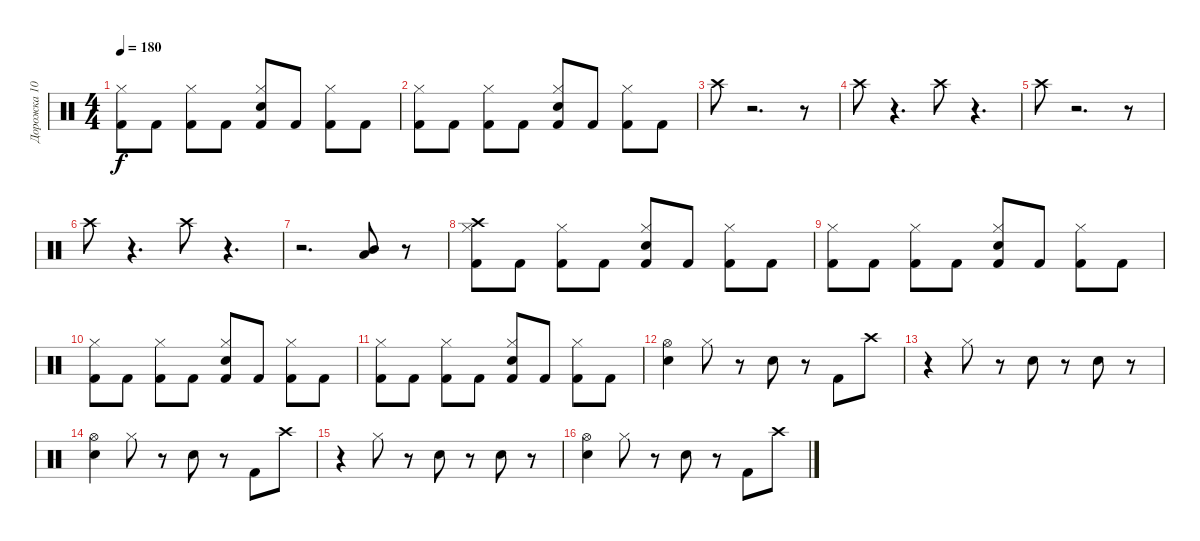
\track ("Дорожка 10" "Дорожка 10") {instrument percussion}
\staff {score}
\articulation defaults
\ts (4 4)
\tempo 180
\clef neutral
\ks c
("Kick (hit) 2" "Hi-Hat (closed)").8{dy f} "Kick (hit) 2".8 ("Kick (hit) 2" "Hi-Hat (closed)").8 "Kick (hit) 2".8 ("Snare (hit) 2" "Kick (hit) 2" "Hi-Hat (closed)").8 "Kick (hit) 2".8 ("Kick (hit) 2" "Hi-Hat (closed)").8 "Kick (hit) 2".8 |
("Kick (hit) 2" "Hi-Hat (closed)").8 "Kick (hit) 2".8 ("Kick (hit) 2" "Hi-Hat (closed)").8 "Kick (hit) 2".8 ("Snare (hit) 2" "Kick (hit) 2" "Hi-Hat (closed)").8 "Kick (hit) 2".8 ("Kick (hit) 2" "Hi-Hat (closed)").8 "Kick (hit) 2".8 |
"Crash high (hit)".8 r.2{d} r.8 |
"Crash high (hit)".8 r.4{d} "Crash high (hit)".8 r.4{d} |
"Crash high (hit)".8 r.2{d} r.8 |
"Crash high (hit)".8 r.4{d} "Crash high (hit)".8 r.4{d} |
r.2{d} ("Mid Tom (hit)" "Low Tom (hit)").8 r.8 |
("Kick (hit) 2" "Hi-Hat (closed)" "Crash high (hit)").8 "Kick (hit) 2".8 ("Kick (hit) 2" "Hi-Hat (closed)").8 "Kick (hit) 2".8 ("Snare (hit) 2" "Kick (hit) 2" "Hi-Hat (closed)").8 "Kick (hit) 2".8 ("Kick (hit) 2" "Hi-Hat (closed)").8 "Kick (hit) 2".8 |
("Kick (hit) 2" "Hi-Hat (closed)").8 "Kick (hit) 2".8 ("Kick (hit) 2" "Hi-Hat (closed)").8 "Kick (hit) 2".8 ("Snare (hit) 2" "Kick (hit) 2" "Hi-Hat (closed)").8 "Kick (hit) 2".8 ("Kick (hit) 2" "Hi-Hat (closed)").8 "Kick (hit) 2".8 |
("Kick (hit) 2" "Hi-Hat (closed)").8 "Kick (hit) 2".8 ("Kick (hit) 2" "Hi-Hat (closed)").8 "Kick (hit) 2".8 ("Snare (hit) 2" "Kick (hit) 2" "Hi-Hat (closed)").8 "Kick (hit) 2".8 ("Kick (hit) 2" "Hi-Hat (closed)").8 "Kick (hit) 2".8 |
("Kick (hit) 2" "Hi-Hat (closed)").8 "Kick (hit) 2".8 ("Kick (hit) 2" "Hi-Hat (closed)").8 "Kick (hit) 2".8 ("Snare (hit) 2" "Kick (hit) 2" "Hi-Hat (closed)").8 "Kick (hit) 2".8 ("Kick (hit) 2" "Hi-Hat (closed)").8 "Kick (hit) 2".8 |
("Snare (hit) 2" "Hi-Hat (open)").4 "Hi-Hat (closed)".8 r.8 "Snare (hit) 2".8 r.8 "Kick (hit) 2".8 "Crash high (hit)".8 |
r.4 "Hi-Hat (closed)".8 r.8 "Snare (hit) 2".8 r.8 "Snare (hit) 2".8 r.8 |
("Snare (hit) 2" "Hi-Hat (open)").4 "Hi-Hat (closed)".8 r.8 "Snare (hit) 2".8 r.8 "Kick (hit) 2".8 "Crash high (hit)".8 |
r.4 "Hi-Hat (closed)".8 r.8 "Snare (hit) 2".8 r.8 "Snare (hit) 2".8 r.8 |
("Snare (hit) 2" "Hi-Hat (open)").4 "Hi-Hat (closed)".8 r.8 "Snare (hit) 2".8 r.8 "Kick (hit) 2".8 "Crash high (hit)".8
